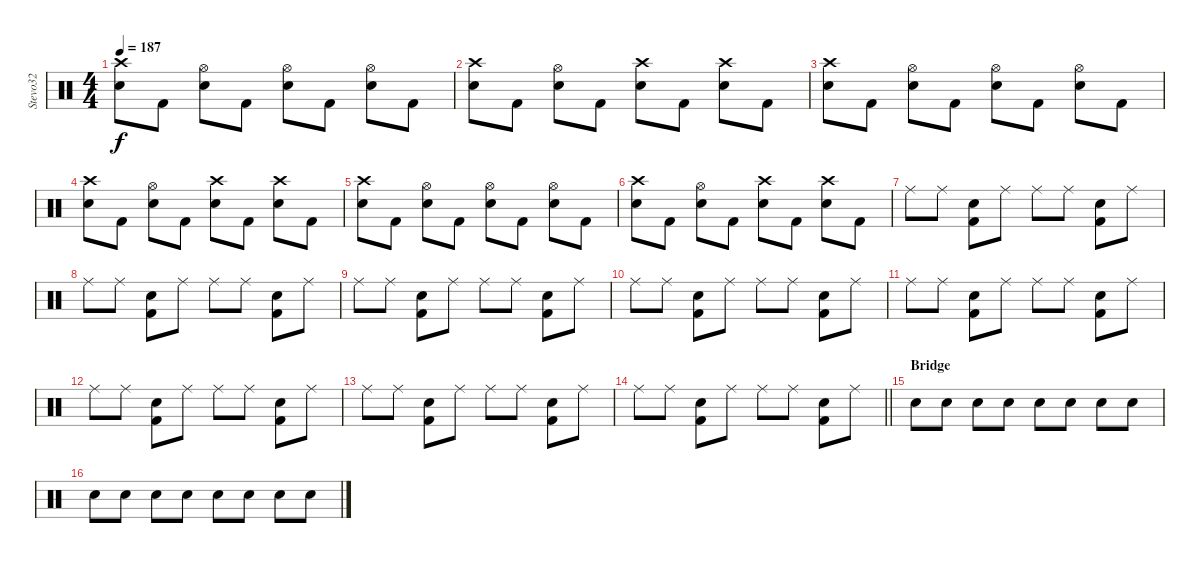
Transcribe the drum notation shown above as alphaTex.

\track ("Stevo32" "Stevo32") {instrument percussion}
\staff {score}
\articulation defaults
\ts (4 4)
\tempo 187
\clef neutral
\ks c
("Crash high (hit)" "Snare (hit) 2").8{dy f} "Kick (hit) 2".8 ("Snare (hit) 2" "Hi-Hat (open)").8 "Kick (hit) 2".8 ("Snare (hit) 2" "Hi-Hat (open)").8 "Kick (hit) 2".8 ("Snare (hit) 2" "Hi-Hat (open)").8 "Kick (hit) 2".8 |
("Crash high (hit)" "Snare (hit) 2").8 "Kick (hit) 2".8 ("Snare (hit) 2" "Hi-Hat (open)").8 "Kick (hit) 2".8 ("Crash high (hit)" "Snare (hit) 2").8 "Kick (hit) 2".8 ("Crash high (hit)" "Snare (hit) 2").8 "Kick (hit) 2".8 |
("Crash high (hit)" "Snare (hit) 2").8 "Kick (hit) 2".8 ("Snare (hit) 2" "Hi-Hat (open)").8 "Kick (hit) 2".8 ("Snare (hit) 2" "Hi-Hat (open)").8 "Kick (hit) 2".8 ("Snare (hit) 2" "Hi-Hat (open)").8 "Kick (hit) 2".8 |
("Crash high (hit)" "Snare (hit) 2").8 "Kick (hit) 2".8 ("Snare (hit) 2" "Hi-Hat (open)").8 "Kick (hit) 2".8 ("Crash high (hit)" "Snare (hit) 2").8 "Kick (hit) 2".8 ("Crash high (hit)" "Snare (hit) 2").8 "Kick (hit) 2".8 |
("Crash high (hit)" "Snare (hit) 2").8 "Kick (hit) 2".8 ("Snare (hit) 2" "Hi-Hat (open)").8 "Kick (hit) 2".8 ("Snare (hit) 2" "Hi-Hat (open)").8 "Kick (hit) 2".8 ("Snare (hit) 2" "Hi-Hat (open)").8 "Kick (hit) 2".8 |
("Crash high (hit)" "Snare (hit) 2").8 "Kick (hit) 2".8 ("Snare (hit) 2" "Hi-Hat (open)").8 "Kick (hit) 2".8 ("Crash high (hit)" "Snare (hit) 2").8 "Kick (hit) 2".8 ("Crash high (hit)" "Snare (hit) 2").8 "Kick (hit) 2".8 |
"Ride (middle)".8 "Ride (middle)".8 ("Kick (hit) 2" "Snare (hit) 2").8 "Ride (middle)".8 "Ride (middle)".8 "Ride (middle)".8 ("Kick (hit) 2" "Snare (hit) 2").8 "Ride (middle)".8 |
"Ride (middle)".8 "Ride (middle)".8 ("Kick (hit) 2" "Snare (hit) 2").8 "Ride (middle)".8 "Ride (middle)".8 "Ride (middle)".8 ("Kick (hit) 2" "Snare (hit) 2").8 "Ride (middle)".8 |
"Ride (middle)".8 "Ride (middle)".8 ("Kick (hit) 2" "Snare (hit) 2").8 "Ride (middle)".8 "Ride (middle)".8 "Ride (middle)".8 ("Kick (hit) 2" "Snare (hit) 2").8 "Ride (middle)".8 |
"Ride (middle)".8 "Ride (middle)".8 ("Kick (hit) 2" "Snare (hit) 2").8 "Ride (middle)".8 "Ride (middle)".8 "Ride (middle)".8 ("Kick (hit) 2" "Snare (hit) 2").8 "Ride (middle)".8 |
"Ride (middle)".8 "Ride (middle)".8 ("Kick (hit) 2" "Snare (hit) 2").8 "Ride (middle)".8 "Ride (middle)".8 "Ride (middle)".8 ("Kick (hit) 2" "Snare (hit) 2").8 "Ride (middle)".8 |
"Ride (middle)".8 "Ride (middle)".8 ("Kick (hit) 2" "Snare (hit) 2").8 "Ride (middle)".8 "Ride (middle)".8 "Ride (middle)".8 ("Kick (hit) 2" "Snare (hit) 2").8 "Ride (middle)".8 |
"Ride (middle)".8 "Ride (middle)".8 ("Kick (hit) 2" "Snare (hit) 2").8 "Ride (middle)".8 "Ride (middle)".8 "Ride (middle)".8 ("Kick (hit) 2" "Snare (hit) 2").8 "Ride (middle)".8 |
\barLineRight lightlight "Ride (middle)".8 "Ride (middle)".8
("Kick (hit) 2" "Snare (hit) 2").8 "Ride (middle)".8 "Ride (middle)".8 "Ride (middle)".8 ("Kick (hit) 2" "Snare (hit) 2").8 "Ride (middle)".8 |
\section ("" "Bridge")
"Snare (hit) 2".8 "Snare (hit) 2".8 "Snare (hit) 2".8 "Snare (hit) 2".8 "Snare (hit) 2".8 "Snare (hit) 2".8 "Snare (hit) 2".8 "Snare (hit) 2".8 |
"Snare (hit) 2".8 "Snare (hit) 2".8 "Snare (hit) 2".8 "Snare (hit) 2".8 "Snare (hit) 2".8 "Snare (hit) 2".8 "Snare (hit) 2".8 "Snare (hit) 2".8
